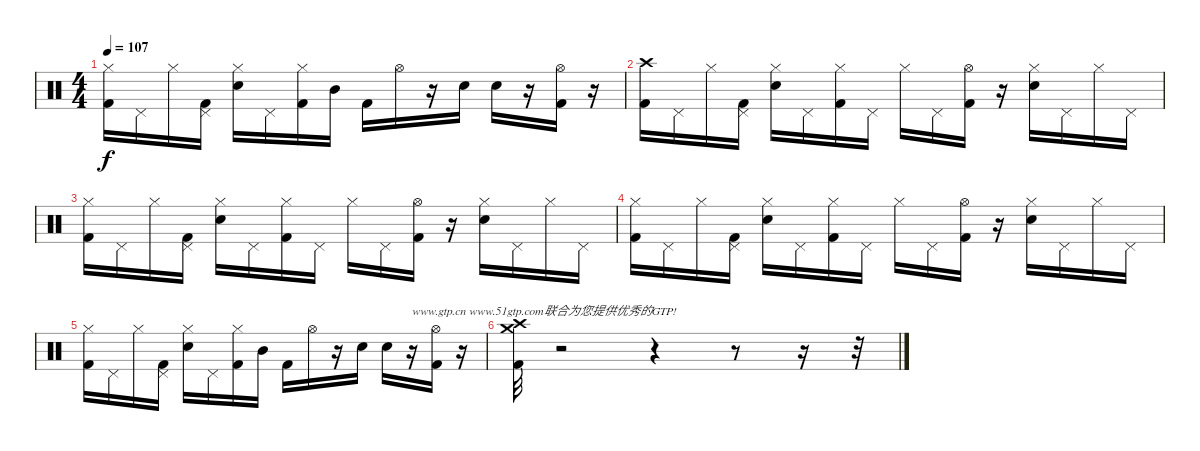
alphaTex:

\track "" {instrument percussion}
\staff {score}
\articulation defaults
\ts (4 4)
\tempo 107
\clef neutral
\ks c
("Hi-Hat (closed)" "Kick (hit) 2").16{dy f} "Pedal Hi-Hat (hit)".16 "Hi-Hat (closed)".16 ("Pedal Hi-Hat (hit)" "Kick (hit) 2").16 ("Hi-Hat (closed)" "Electric Snare (hit)").16 "Pedal Hi-Hat (hit)".16 ("Hi-Hat (closed)" "Kick (hit) 2").16 "Mid Tom (hit)".16 "Kick (hit) 2".16 "Hi-Hat (open)".16 r.16 "Electric Snare (hit)".16 "Electric Snare (hit)".16 r.16 ("Hi-Hat (open)" "Kick (hit) 2").16 r.16 |
("Crash high (hit)" "Kick (hit) 2").16 "Pedal Hi-Hat (hit)".16 "Hi-Hat (closed)".16 ("Pedal Hi-Hat (hit)" "Kick (hit) 2").16 ("Hi-Hat (closed)" "Electric Snare (hit)").16 "Pedal Hi-Hat (hit)".16 ("Hi-Hat (closed)" "Kick (hit) 2").16 "Pedal Hi-Hat (hit)".16 "Hi-Hat (closed)".16 "Pedal Hi-Hat (hit)".16 ("Hi-Hat (open)" "Kick (hit) 2").16 r.16 ("Hi-Hat (closed)" "Electric Snare (hit)").16 "Pedal Hi-Hat (hit)".16 "Hi-Hat (closed)".16 "Pedal Hi-Hat (hit)".16 |
("Hi-Hat (closed)" "Kick (hit) 2").16 "Pedal Hi-Hat (hit)".16 "Hi-Hat (closed)".16 ("Pedal Hi-Hat (hit)" "Kick (hit) 2").16 ("Hi-Hat (closed)" "Electric Snare (hit)").16 "Pedal Hi-Hat (hit)".16 ("Hi-Hat (closed)" "Kick (hit) 2").16 "Pedal Hi-Hat (hit)".16 "Hi-Hat (closed)".16 "Pedal Hi-Hat (hit)".16 ("Hi-Hat (open)" "Kick (hit) 2").16 r.16 ("Hi-Hat (closed)" "Electric Snare (hit)").16 "Pedal Hi-Hat (hit)".16 "Hi-Hat (closed)".16 "Pedal Hi-Hat (hit)".16 |
("Hi-Hat (closed)" "Kick (hit) 2").16 "Pedal Hi-Hat (hit)".16 "Hi-Hat (closed)".16 ("Pedal Hi-Hat (hit)" "Kick (hit) 2").16 ("Hi-Hat (closed)" "Electric Snare (hit)").16 "Pedal Hi-Hat (hit)".16 ("Hi-Hat (closed)" "Kick (hit) 2").16 "Pedal Hi-Hat (hit)".16 "Hi-Hat (closed)".16 "Pedal Hi-Hat (hit)".16 ("Hi-Hat (open)" "Kick (hit) 2").16 r.16 ("Hi-Hat (closed)" "Electric Snare (hit)").16 "Pedal Hi-Hat (hit)".16 "Hi-Hat (closed)".16 "Pedal Hi-Hat (hit)".16 |
("Hi-Hat (closed)" "Kick (hit) 2").16 "Pedal Hi-Hat (hit)".16 "Hi-Hat (closed)".16 ("Pedal Hi-Hat (hit)" "Kick (hit) 2").16 ("Hi-Hat (closed)" "Electric Snare (hit)").16 "Pedal Hi-Hat (hit)".16 ("Hi-Hat (closed)" "Kick (hit) 2").16 "Mid Tom (hit)".16 "Kick (hit) 2".16 "Hi-Hat (open)".16 r.16 "Electric Snare (hit)".16 "Electric Snare (hit)".16 r.16{txt "www.gtp.cn www.51gtp.com联合为您提供优秀的GTP!"} ("Hi-Hat (open)" "Kick (hit) 2").16 r.16 |
("Crash high (hit)" "Crash medium (hit)" "Kick (hit) 2").32 r.2 r.4 r.8 r.16 r.32
